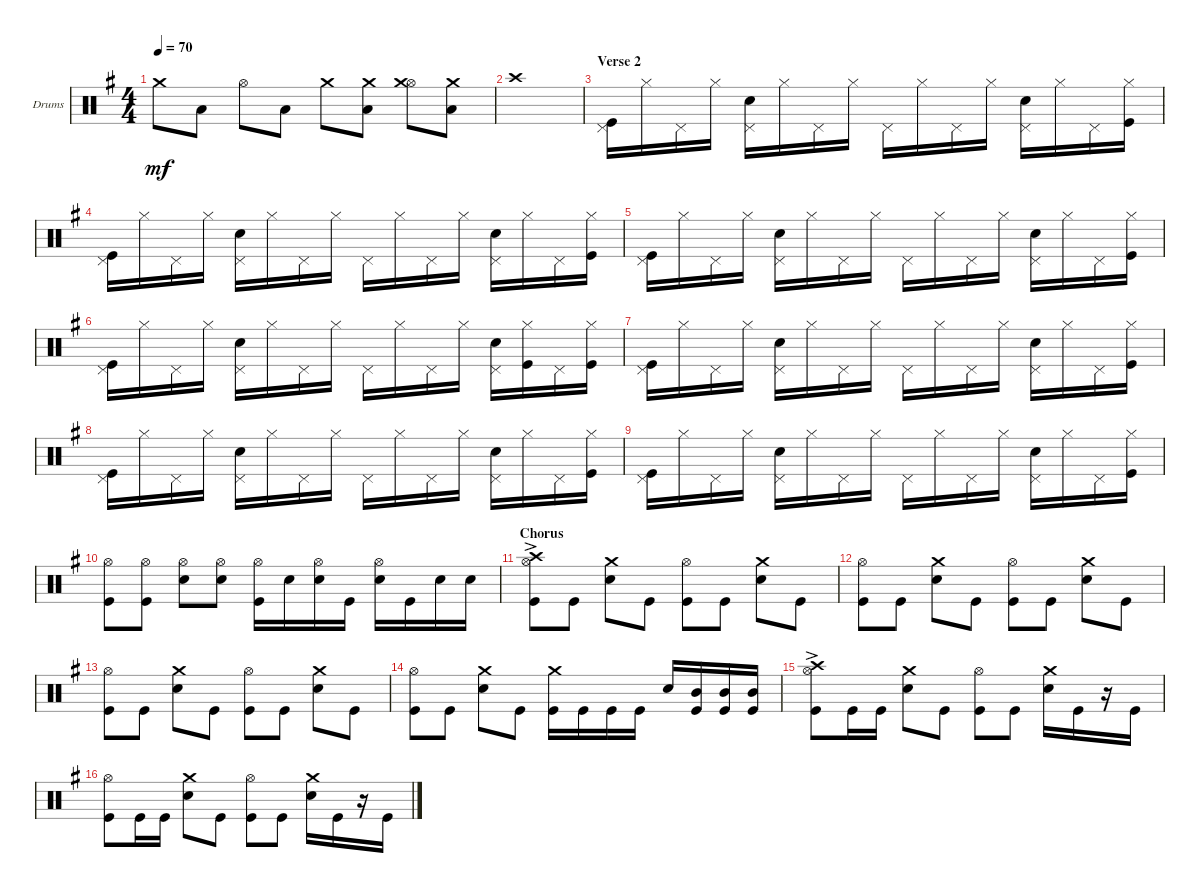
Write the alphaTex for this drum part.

\defaultSystemsLayout 4
\bracketExtendMode groupsimilarinstruments
\firstSystemTrackNameOrientation horizontal
\otherSystemsTrackNameOrientation horizontal
\track ("Drumkit" "Drums") {instrument percussion}
\staff {score}
\articulation defaults
\ts (4 4)
\tempo 70
\clef neutral
\ks eminor "Crash medium (hit)".8{dy mf} "Low Tom (hit)".8 "Hi-Hat (open)".8 "Low Tom (hit)".8 "Crash medium (hit)".8
("Low Tom (hit)" "Crash medium (hit)").8 ("Hi-Hat (open)" "Crash medium (hit)").8 ("Low Tom (hit)" "Crash medium (hit)").8 |
"Crash high (hit)".1 |
\section ("" "Verse 2")
("Pedal Hi-Hat (hit)" "Kick (hit)").16 "Hi-Hat (closed)".16 "Pedal Hi-Hat (hit)".16 "Hi-Hat (closed)".16 ("Pedal Hi-Hat (hit)" "Snare (hit) 2").16 "Hi-Hat (closed)".16 "Pedal Hi-Hat (hit)".16 "Hi-Hat (closed)".16 "Pedal Hi-Hat (hit)".16 "Hi-Hat (closed)".16 "Pedal Hi-Hat (hit)".16 "Hi-Hat (closed)".16 ("Pedal Hi-Hat (hit)" "Snare (hit) 2").16 "Hi-Hat (closed)".16 "Pedal Hi-Hat (hit)".16 ("Hi-Hat (closed)" "Kick (hit)").16 |
("Pedal Hi-Hat (hit)" "Kick (hit)").16 "Hi-Hat (closed)".16 "Pedal Hi-Hat (hit)".16 "Hi-Hat (closed)".16 ("Pedal Hi-Hat (hit)" "Snare (hit) 2").16 "Hi-Hat (closed)".16 "Pedal Hi-Hat (hit)".16 "Hi-Hat (closed)".16 "Pedal Hi-Hat (hit)".16 "Hi-Hat (closed)".16 "Pedal Hi-Hat (hit)".16 "Hi-Hat (closed)".16 ("Pedal Hi-Hat (hit)" "Snare (hit) 2").16 "Hi-Hat (closed)".16 "Pedal Hi-Hat (hit)".16 ("Hi-Hat (closed)" "Kick (hit)").16 |
("Pedal Hi-Hat (hit)" "Kick (hit)").16 "Hi-Hat (closed)".16 "Pedal Hi-Hat (hit)".16 "Hi-Hat (closed)".16 ("Pedal Hi-Hat (hit)" "Snare (hit) 2").16 "Hi-Hat (closed)".16 "Pedal Hi-Hat (hit)".16 "Hi-Hat (closed)".16 "Pedal Hi-Hat (hit)".16 "Hi-Hat (closed)".16 "Pedal Hi-Hat (hit)".16 "Hi-Hat (closed)".16 ("Pedal Hi-Hat (hit)" "Snare (hit) 2").16 "Hi-Hat (closed)".16 "Pedal Hi-Hat (hit)".16 ("Hi-Hat (closed)" "Kick (hit)").16 |
("Pedal Hi-Hat (hit)" "Kick (hit)").16 "Hi-Hat (closed)".16 "Pedal Hi-Hat (hit)".16 "Hi-Hat (closed)".16 ("Pedal Hi-Hat (hit)" "Snare (hit) 2").16 "Hi-Hat (closed)".16 "Pedal Hi-Hat (hit)".16 "Hi-Hat (closed)".16 "Pedal Hi-Hat (hit)".16 "Hi-Hat (closed)".16 "Pedal Hi-Hat (hit)".16 "Hi-Hat (closed)".16 ("Pedal Hi-Hat (hit)" "Snare (hit) 2").16 ("Hi-Hat (closed)" "Kick (hit)").16 "Pedal Hi-Hat (hit)".16 ("Hi-Hat (closed)" "Kick (hit)").16 |
("Pedal Hi-Hat (hit)" "Kick (hit)").16 "Hi-Hat (closed)".16 "Pedal Hi-Hat (hit)".16 "Hi-Hat (closed)".16 ("Pedal Hi-Hat (hit)" "Snare (hit) 2").16 "Hi-Hat (closed)".16 "Pedal Hi-Hat (hit)".16 "Hi-Hat (closed)".16 "Pedal Hi-Hat (hit)".16 "Hi-Hat (closed)".16 "Pedal Hi-Hat (hit)".16 "Hi-Hat (closed)".16 ("Pedal Hi-Hat (hit)" "Snare (hit) 2").16 "Hi-Hat (closed)".16 "Pedal Hi-Hat (hit)".16 ("Hi-Hat (closed)" "Kick (hit)").16 |
("Pedal Hi-Hat (hit)" "Kick (hit)").16 "Hi-Hat (closed)".16 "Pedal Hi-Hat (hit)".16 "Hi-Hat (closed)".16 ("Pedal Hi-Hat (hit)" "Snare (hit) 2").16 "Hi-Hat (closed)".16 "Pedal Hi-Hat (hit)".16 "Hi-Hat (closed)".16 "Pedal Hi-Hat (hit)".16 "Hi-Hat (closed)".16 "Pedal Hi-Hat (hit)".16 "Hi-Hat (closed)".16 ("Pedal Hi-Hat (hit)" "Snare (hit) 2").16 "Hi-Hat (closed)".16 "Pedal Hi-Hat (hit)".16 ("Hi-Hat (closed)" "Kick (hit)").16 |
("Pedal Hi-Hat (hit)" "Kick (hit)").16 "Hi-Hat (closed)".16 "Pedal Hi-Hat (hit)".16 "Hi-Hat (closed)".16 ("Pedal Hi-Hat (hit)" "Snare (hit) 2").16 "Hi-Hat (closed)".16 "Pedal Hi-Hat (hit)".16 "Hi-Hat (closed)".16 "Pedal Hi-Hat (hit)".16 "Hi-Hat (closed)".16 "Pedal Hi-Hat (hit)".16 "Hi-Hat (closed)".16 ("Pedal Hi-Hat (hit)" "Snare (hit) 2").16 "Hi-Hat (closed)".16 "Pedal Hi-Hat (hit)".16 ("Hi-Hat (closed)" "Kick (hit)").16 |
("Kick (hit)" "Hi-Hat (open)").8 ("Kick (hit)" "Hi-Hat (open)").8 ("Snare (hit) 2" "Hi-Hat (open)").8 ("Snare (hit) 2" "Hi-Hat (open)").8 ("Kick (hit)" "Hi-Hat (open)").16 "Snare (hit) 2".16 ("Snare (hit) 2" "Hi-Hat (open)").16 "Kick (hit)".16 ("Snare (hit) 2" "Hi-Hat (open)").16 "Kick (hit)".16 "Snare (hit) 2".16 "Snare (hit) 2".16 |
\section ("" "Chorus")
("Kick (hit)" "Hi-Hat (open)" "Crash high (hit)"{ac}).8 "Kick (hit)".8 ("Snare (hit) 2" "Crash medium (hit)").8 "Kick (hit)".8 ("Kick (hit)" "Hi-Hat (open)").8 "Kick (hit)".8 ("Snare (hit) 2" "Crash medium (hit)").8 "Kick (hit)".8 |
("Kick (hit)" "Hi-Hat (open)").8 "Kick (hit)".8 ("Snare (hit) 2" "Crash medium (hit)").8 "Kick (hit)".8 ("Kick (hit)" "Hi-Hat (open)").8 "Kick (hit)".8 ("Snare (hit) 2" "Crash medium (hit)").8 "Kick (hit)".8 |
("Kick (hit)" "Hi-Hat (open)").8 "Kick (hit)".8 ("Snare (hit) 2" "Crash medium (hit)").8 "Kick (hit)".8 ("Kick (hit)" "Hi-Hat (open)").8 "Kick (hit)".8 ("Snare (hit) 2" "Crash medium (hit)").8 "Kick (hit)".8 |
("Kick (hit)" "Hi-Hat (open)").8 "Kick (hit)".8 ("Snare (hit) 2" "Crash medium (hit)").8 "Kick (hit)".8 ("Kick (hit)" "Crash medium (hit)").16 "Kick (hit)".16 "Kick (hit)".16 "Kick (hit)".16 "Snare (hit) 2".16 ("Kick (hit)" "Mid Tom (hit)").16 ("Kick (hit)" "Mid Tom (hit)").16 ("Kick (hit)" "Mid Tom (hit)").16 |
("Kick (hit)" "Hi-Hat (open)" "Crash high (hit)"{ac}).8 "Kick (hit)".16 "Kick (hit)".16 ("Snare (hit) 2" "Crash medium (hit)").8 "Kick (hit)".8 ("Kick (hit)" "Hi-Hat (open)").8 "Kick (hit)".8 ("Snare (hit) 2" "Crash medium (hit)").16 "Kick (hit)".16 r.16 "Kick (hit)".16 |
("Kick (hit)" "Hi-Hat (open)").8 "Kick (hit)".16 "Kick (hit)".16 ("Snare (hit) 2" "Crash medium (hit)").8 "Kick (hit)".8 ("Kick (hit)" "Hi-Hat (open)").8 "Kick (hit)".8 ("Snare (hit) 2" "Crash medium (hit)").16 "Kick (hit)".16 r.16 "Kick (hit)".16
